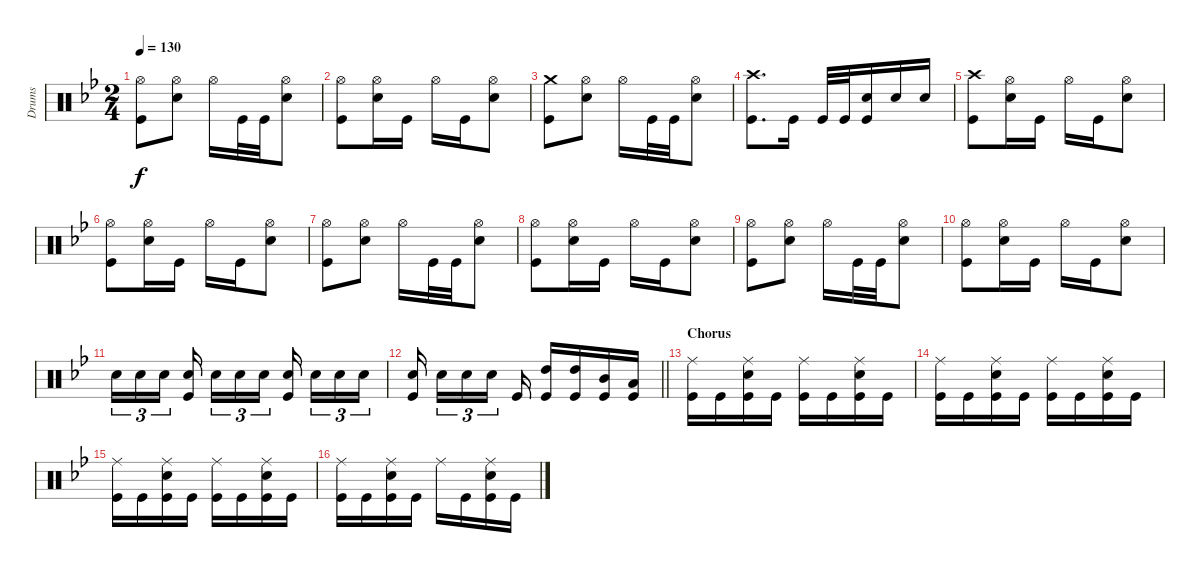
\track ("Drums" "Drums") {instrument percussion}
\staff {score}
\articulation defaults
\ts (2 4)
\tempo 130
\clef neutral
\ks gminor
("Kick (hit)" "Hi-Hat (open)").8{dy f} ("Hi-Hat (open)" "Snare (hit) 2").8 "Hi-Hat (open)".16 "Kick (hit)".32 "Kick (hit)".32 ("Hi-Hat (open)" "Snare (hit) 2").8 |
("Kick (hit)" "Hi-Hat (open)").8 ("Hi-Hat (open)" "Snare (hit) 2").16 "Kick (hit)".16 "Hi-Hat (open)".16 "Kick (hit)".16 ("Hi-Hat (open)" "Snare (hit) 2").8 |
("Kick (hit)" "Crash medium (hit)").8 ("Hi-Hat (open)" "Snare (hit) 2").8 "Hi-Hat (open)".16 "Kick (hit)".32 "Kick (hit)".32 ("Hi-Hat (open)" "Snare (hit) 2").8 |
("Crash high (hit)" "Kick (hit)").8{d} "Kick (hit)".16 "Kick (hit)".32 "Kick (hit)".32 ("Kick (hit)" "Snare (hit) 2").16 "Snare (hit) 2".16 "Snare (hit) 2".16 |
("Kick (hit)" "Crash high (hit)").8 ("Hi-Hat (open)" "Snare (hit) 2").16 "Kick (hit)".16 "Hi-Hat (open)".16 "Kick (hit)".16 ("Hi-Hat (open)" "Snare (hit) 2").8 |
("Kick (hit)" "Hi-Hat (open)").8 ("Hi-Hat (open)" "Snare (hit) 2").16 "Kick (hit)".16 "Hi-Hat (open)".16 "Kick (hit)".16 ("Hi-Hat (open)" "Snare (hit) 2").8 |
("Kick (hit)" "Hi-Hat (open)").8 ("Hi-Hat (open)" "Snare (hit) 2").8 "Hi-Hat (open)".16 "Kick (hit)".32 "Kick (hit)".32 ("Hi-Hat (open)" "Snare (hit) 2").8 |
("Kick (hit)" "Hi-Hat (open)").8 ("Hi-Hat (open)" "Snare (hit) 2").16 "Kick (hit)".16 "Hi-Hat (open)".16 "Kick (hit)".16 ("Hi-Hat (open)" "Snare (hit) 2").8 |
("Kick (hit)" "Hi-Hat (open)").8 ("Hi-Hat (open)" "Snare (hit) 2").8 "Hi-Hat (open)".16 "Kick (hit)".32 "Kick (hit)".32 ("Hi-Hat (open)" "Snare (hit) 2").8 |
("Kick (hit)" "Hi-Hat (open)").8 ("Hi-Hat (open)" "Snare (hit) 2").16 "Kick (hit)".16 "Hi-Hat (open)".16 "Kick (hit)".16 ("Hi-Hat (open)" "Snare (hit) 2").8 |
"Snare (hit) 2".16{tu (3 2)} "Snare (hit) 2".16{tu (3 2)} "Snare (hit) 2".16{tu (3 2) beam splitsecondary} ("Snare (hit) 2" "Kick (hit)").16{beam splitsecondary} "Snare (hit) 2".16{tu (3 2)} "Snare (hit) 2".16{tu (3 2)} "Snare (hit) 2".16{tu (3 2) beam splitsecondary} ("Snare (hit) 2" "Kick (hit)").16{beam splitsecondary} "Snare (hit) 2".16{tu (3 2)} "Snare (hit) 2".16{tu (3 2)} "Snare (hit) 2".16{tu (3 2)} |
\barLineRight lightlight
("Kick (hit)" "Snare (hit) 2").16{beam splitsecondary} "Snare (hit) 2".16{tu (3 2)} "Snare (hit) 2".16{tu (3 2)} "Snare (hit) 2".16{tu (3 2) beam splitsecondary} "Kick (hit)".16 ("Kick (hit)" "High Tom (hit)").16 ("Kick (hit)" "High Tom (hit)").16 ("Kick (hit)" "Mid Tom (hit)").16 ("Kick (hit)" "Low Tom (hit)").16 |
\section ("" "Chorus")
("Kick (hit)" "Ride (middle)").16 "Kick (hit)".16 ("Kick (hit)" "Snare (hit) 2" "Ride (middle)").16 "Kick (hit)".16 ("Kick (hit)" "Ride (middle)").16 "Kick (hit)".16 ("Kick (hit)" "Snare (hit) 2" "Ride (middle)").16 "Kick (hit)".16 |
("Kick (hit)" "Ride (middle)").16 "Kick (hit)".16 ("Kick (hit)" "Snare (hit) 2" "Ride (middle)").16 "Kick (hit)".16 ("Kick (hit)" "Ride (middle)").16 "Kick (hit)".16 ("Kick (hit)" "Snare (hit) 2" "Ride (middle)").16 "Kick (hit)".16 |
("Kick (hit)" "Ride (middle)").16 "Kick (hit)".16 ("Kick (hit)" "Snare (hit) 2" "Ride (middle)").16 "Kick (hit)".16 ("Kick (hit)" "Ride (middle)").16 "Kick (hit)".16 ("Kick (hit)" "Snare (hit) 2" "Ride (middle)").16 "Kick (hit)".16 |
("Kick (hit)" "Ride (middle)").16 "Kick (hit)".16 ("Kick (hit)" "Snare (hit) 2" "Ride (middle)").16 "Kick (hit)".16 "Ride (middle)".16 "Kick (hit)".16 ("Kick (hit)" "Snare (hit) 2" "Ride (middle)").16 "Kick (hit)".16
